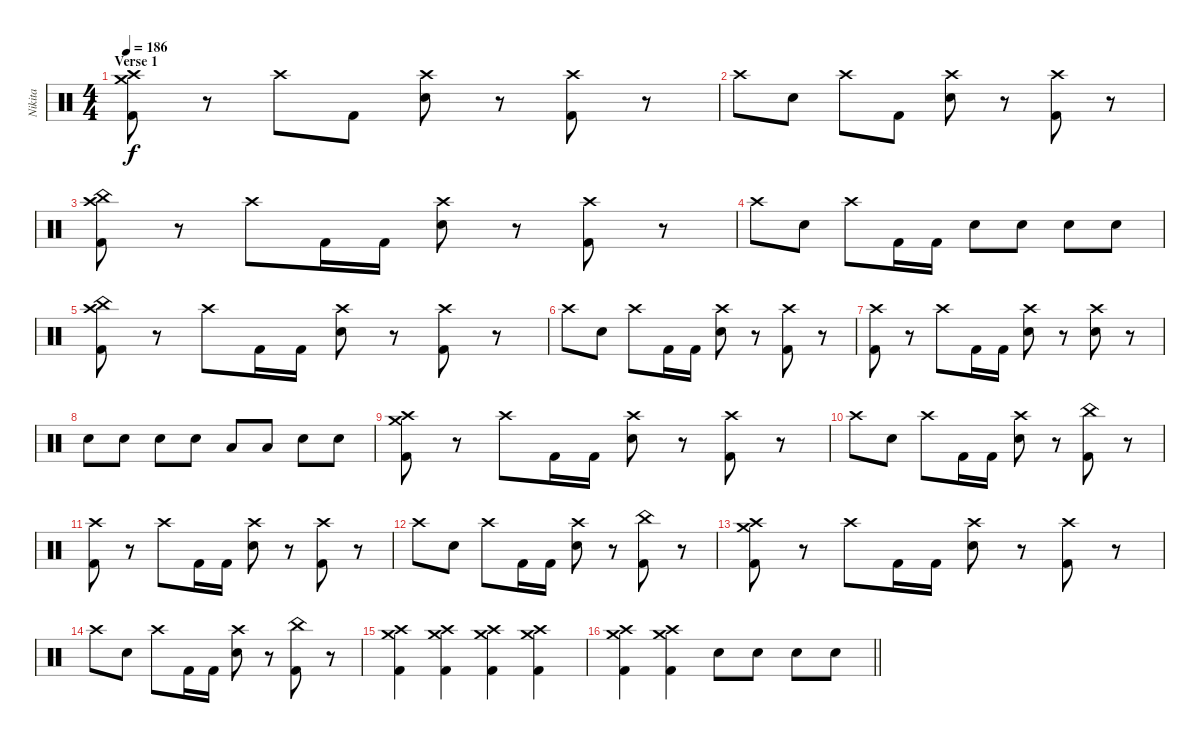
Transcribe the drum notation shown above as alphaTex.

\track ("Nikita" "Nikita") {instrument percussion}
\staff {score}
\articulation defaults
\ts (4 4)
\section ("" "Verse 1")
\tempo 186
\clef neutral
\ks c
("Crash high (hit)" "Crash medium (hit)" "Kick (hit) 2").8{dy f} r.8 "Crash high (hit)".8 "Kick (hit) 2".8 ("Crash high (hit)" "Electric Snare (hit)").8 r.8 ("Crash high (hit)" "Kick (hit) 2").8 r.8 |
"Crash high (hit)".8 "Electric Snare (hit)".8 "Crash high (hit)".8 "Kick (hit) 2".8 ("Crash high (hit)" "Electric Snare (hit)").8 r.8 ("Crash high (hit)" "Kick (hit) 2").8 r.8 |
("Crash high (hit)" "China (hit)" "Kick (hit) 2").8 r.8 "Crash high (hit)".8 "Kick (hit) 2".16 "Kick (hit) 2".16 ("Crash high (hit)" "Electric Snare (hit)").8 r.8 ("Crash high (hit)" "Kick (hit) 2").8 r.8 |
"Crash high (hit)".8 "Electric Snare (hit)".8 "Crash high (hit)".8 "Kick (hit) 2".16 "Kick (hit) 2".16 "Electric Snare (hit)".8 "Electric Snare (hit)".8 "Electric Snare (hit)".8 "Electric Snare (hit)".8 |
("Crash high (hit)" "China (hit)" "Kick (hit) 2").8 r.8 "Crash high (hit)".8 "Kick (hit) 2".16 "Kick (hit) 2".16 ("Crash high (hit)" "Electric Snare (hit)").8 r.8 ("Crash high (hit)" "Kick (hit) 2").8 r.8 |
"Crash high (hit)".8 "Electric Snare (hit)".8 "Crash high (hit)".8 "Kick (hit) 2".16 "Kick (hit) 2".16 ("Crash high (hit)" "Electric Snare (hit)").8 r.8 ("Crash high (hit)" "Kick (hit) 2").8 r.8 |
("Crash high (hit)" "Kick (hit) 2").8 r.8 "Crash high (hit)".8 "Kick (hit) 2".16 "Kick (hit) 2".16 ("Crash high (hit)" "Electric Snare (hit)").8 r.8 ("Crash high (hit)" "Electric Snare (hit)").8 r.8 |
"Electric Snare (hit)".8 "Electric Snare (hit)".8 "Electric Snare (hit)".8 "Electric Snare (hit)".8 "Low Floor Tom (hit)".8 "Low Floor Tom (hit)".8 "Electric Snare (hit)".8 "Electric Snare (hit)".8 |
("Crash high (hit)" "Crash medium (hit)" "Kick (hit) 2").8 r.8 "Crash high (hit)".8 "Kick (hit) 2".16 "Kick (hit) 2".16 ("Crash high (hit)" "Electric Snare (hit)").8 r.8 ("Crash high (hit)" "Kick (hit) 2").8 r.8 |
"Crash high (hit)".8 "Electric Snare (hit)".8 "Crash high (hit)".8 "Kick (hit) 2".16 "Kick (hit) 2".16 ("Crash high (hit)" "Electric Snare (hit)").8 r.8 ("China (hit)" "Kick (hit) 2").8 r.8 |
("Crash high (hit)" "Kick (hit) 2").8 r.8 "Crash high (hit)".8 "Kick (hit) 2".16 "Kick (hit) 2".16 ("Crash high (hit)" "Electric Snare (hit)").8 r.8 ("Crash high (hit)" "Kick (hit) 2").8 r.8 |
"Crash high (hit)".8 "Electric Snare (hit)".8 "Crash high (hit)".8 "Kick (hit) 2".16 "Kick (hit) 2".16 ("Crash high (hit)" "Electric Snare (hit)").8 r.8 ("China (hit)" "Kick (hit) 2").8 r.8 |
("Crash high (hit)" "Crash medium (hit)" "Kick (hit) 2").8 r.8 "Crash high (hit)".8 "Kick (hit) 2".16 "Kick (hit) 2".16 ("Crash high (hit)" "Electric Snare (hit)").8 r.8 ("Crash high (hit)" "Kick (hit) 2").8 r.8 |
"Crash high (hit)".8 "Electric Snare (hit)".8 "Crash high (hit)".8 "Kick (hit) 2".16 "Kick (hit) 2".16 ("Crash high (hit)" "Electric Snare (hit)").8 r.8 ("China (hit)" "Kick (hit) 2").8 r.8 |
("Crash high (hit)" "Crash medium (hit)" "Kick (hit) 2").4 ("Crash high (hit)" "Crash medium (hit)" "Kick (hit) 2").4 ("Crash high (hit)" "Crash medium (hit)" "Kick (hit) 2").4 ("Crash high (hit)" "Crash medium (hit)" "Kick (hit) 2").4 |
\barLineRight lightlight
("Crash high (hit)" "Crash medium (hit)" "Kick (hit) 2").4 ("Crash high (hit)" "Crash medium (hit)" "Kick (hit) 2").4 "Electric Snare (hit)".8 "Electric Snare (hit)".8 "Electric Snare (hit)".8 "Electric Snare (hit)".8
